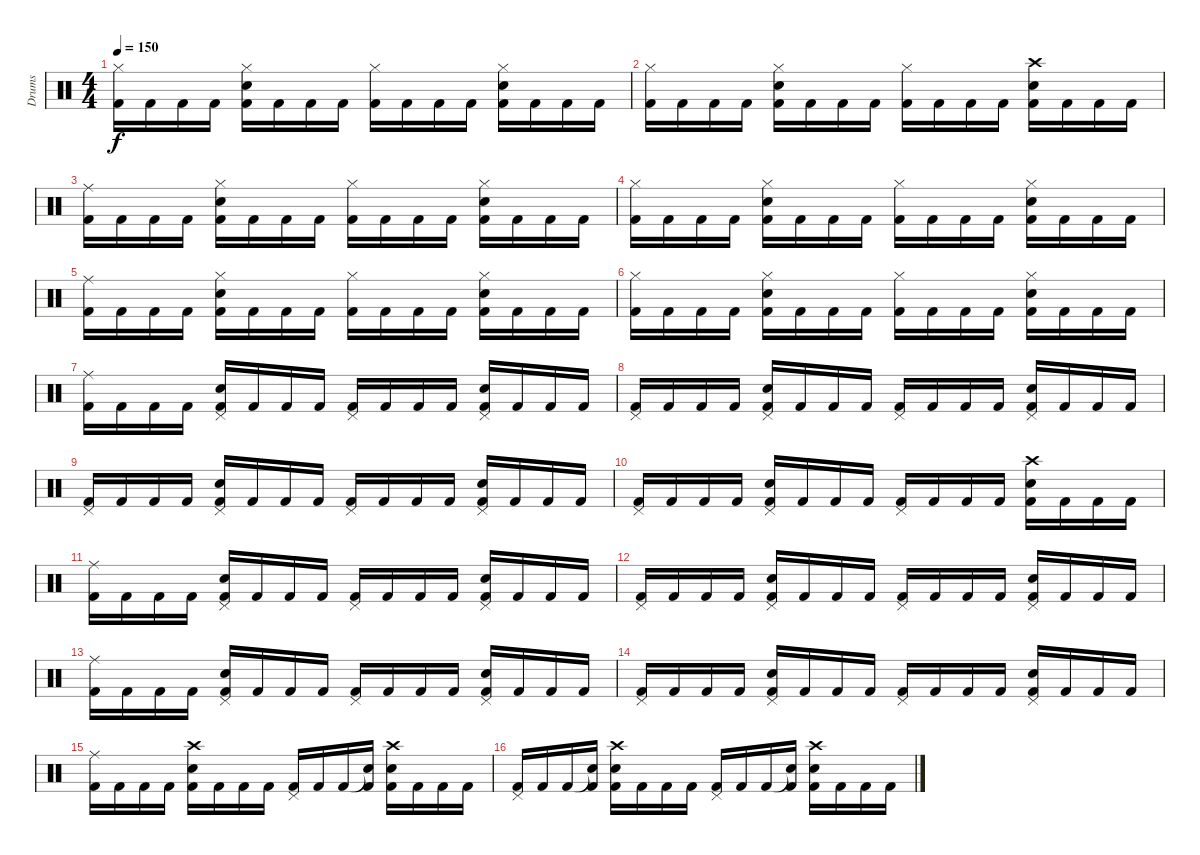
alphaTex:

\track ("Drums" "Drums") {instrument percussion}
\staff {score}
\articulation defaults
\ts (4 4)
\tempo 150
\clef neutral
\ks c
("Hi-Hat (closed)" "Kick (hit) 2").16{dy f} "Kick (hit) 2".16 "Kick (hit) 2".16 "Kick (hit) 2".16 ("Hi-Hat (closed)" "Electric Snare (hit)" "Kick (hit) 2").16 "Kick (hit) 2".16 "Kick (hit) 2".16 "Kick (hit) 2".16 ("Hi-Hat (closed)" "Kick (hit) 2").16 "Kick (hit) 2".16 "Kick (hit) 2".16 "Kick (hit) 2".16 ("Hi-Hat (closed)" "Electric Snare (hit)" "Kick (hit) 2").16 "Kick (hit) 2".16 "Kick (hit) 2".16 "Kick (hit) 2".16 |
("Hi-Hat (closed)" "Kick (hit) 2").16 "Kick (hit) 2".16 "Kick (hit) 2".16 "Kick (hit) 2".16 ("Hi-Hat (closed)" "Electric Snare (hit)" "Kick (hit) 2").16 "Kick (hit) 2".16 "Kick (hit) 2".16 "Kick (hit) 2".16 ("Hi-Hat (closed)" "Kick (hit) 2").16 "Kick (hit) 2".16 "Kick (hit) 2".16 "Kick (hit) 2".16 ("Crash high (hit)" "Electric Snare (hit)" "Kick (hit) 2").16 "Kick (hit) 2".16 "Kick (hit) 2".16 "Kick (hit) 2".16 |
("Ride (middle)" "Kick (hit) 2").16 "Kick (hit) 2".16 "Kick (hit) 2".16 "Kick (hit) 2".16 ("Hi-Hat (closed)" "Electric Snare (hit)" "Kick (hit) 2").16 "Kick (hit) 2".16 "Kick (hit) 2".16 "Kick (hit) 2".16 ("Hi-Hat (closed)" "Kick (hit) 2").16 "Kick (hit) 2".16 "Kick (hit) 2".16 "Kick (hit) 2".16 ("Hi-Hat (closed)" "Electric Snare (hit)" "Kick (hit) 2").16 "Kick (hit) 2".16 "Kick (hit) 2".16 "Kick (hit) 2".16 |
("Hi-Hat (closed)" "Kick (hit) 2").16 "Kick (hit) 2".16 "Kick (hit) 2".16 "Kick (hit) 2".16 ("Hi-Hat (closed)" "Electric Snare (hit)" "Kick (hit) 2").16 "Kick (hit) 2".16 "Kick (hit) 2".16 "Kick (hit) 2".16 ("Hi-Hat (closed)" "Kick (hit) 2").16 "Kick (hit) 2".16 "Kick (hit) 2".16 "Kick (hit) 2".16 ("Hi-Hat (closed)" "Electric Snare (hit)" "Kick (hit) 2").16 "Kick (hit) 2".16 "Kick (hit) 2".16 "Kick (hit) 2".16 |
("Ride (middle)" "Kick (hit) 2").16 "Kick (hit) 2".16 "Kick (hit) 2".16 "Kick (hit) 2".16 ("Hi-Hat (closed)" "Electric Snare (hit)" "Kick (hit) 2").16 "Kick (hit) 2".16 "Kick (hit) 2".16 "Kick (hit) 2".16 ("Hi-Hat (closed)" "Kick (hit) 2").16 "Kick (hit) 2".16 "Kick (hit) 2".16 "Kick (hit) 2".16 ("Hi-Hat (closed)" "Electric Snare (hit)" "Kick (hit) 2").16 "Kick (hit) 2".16 "Kick (hit) 2".16 "Kick (hit) 2".16 |
("Hi-Hat (closed)" "Kick (hit) 2").16 "Kick (hit) 2".16 "Kick (hit) 2".16 "Kick (hit) 2".16 ("Hi-Hat (closed)" "Electric Snare (hit)" "Kick (hit) 2").16 "Kick (hit) 2".16 "Kick (hit) 2".16 "Kick (hit) 2".16 ("Hi-Hat (closed)" "Kick (hit) 2").16 "Kick (hit) 2".16 "Kick (hit) 2".16 "Kick (hit) 2".16 ("Hi-Hat (closed)" "Electric Snare (hit)" "Kick (hit) 2").16 "Kick (hit) 2".16 "Kick (hit) 2".16 "Kick (hit) 2".16 |
("Ride (middle)" "Kick (hit) 2").16 "Kick (hit) 2".16 "Kick (hit) 2".16 "Kick (hit) 2".16 ("Pedal Hi-Hat (hit)" "Electric Snare (hit)" "Kick (hit) 2").16 "Kick (hit) 2".16 "Kick (hit) 2".16 "Kick (hit) 2".16 ("Pedal Hi-Hat (hit)" "Kick (hit) 2").16 "Kick (hit) 2".16 "Kick (hit) 2".16 "Kick (hit) 2".16 ("Pedal Hi-Hat (hit)" "Electric Snare (hit)" "Kick (hit) 2").16 "Kick (hit) 2".16 "Kick (hit) 2".16 "Kick (hit) 2".16 |
("Pedal Hi-Hat (hit)" "Kick (hit) 2").16 "Kick (hit) 2".16 "Kick (hit) 2".16 "Kick (hit) 2".16 ("Pedal Hi-Hat (hit)" "Electric Snare (hit)" "Kick (hit) 2").16 "Kick (hit) 2".16 "Kick (hit) 2".16 "Kick (hit) 2".16 ("Pedal Hi-Hat (hit)" "Kick (hit) 2").16 "Kick (hit) 2".16 "Kick (hit) 2".16 "Kick (hit) 2".16 ("Pedal Hi-Hat (hit)" "Electric Snare (hit)" "Kick (hit) 2").16 "Kick (hit) 2".16 "Kick (hit) 2".16 "Kick (hit) 2".16 |
("Pedal Hi-Hat (hit)" "Kick (hit) 2").16 "Kick (hit) 2".16 "Kick (hit) 2".16 "Kick (hit) 2".16 ("Pedal Hi-Hat (hit)" "Electric Snare (hit)" "Kick (hit) 2").16 "Kick (hit) 2".16 "Kick (hit) 2".16 "Kick (hit) 2".16 ("Pedal Hi-Hat (hit)" "Kick (hit) 2").16 "Kick (hit) 2".16 "Kick (hit) 2".16 "Kick (hit) 2".16 ("Pedal Hi-Hat (hit)" "Electric Snare (hit)" "Kick (hit) 2").16 "Kick (hit) 2".16 "Kick (hit) 2".16 "Kick (hit) 2".16 |
("Pedal Hi-Hat (hit)" "Kick (hit) 2").16 "Kick (hit) 2".16 "Kick (hit) 2".16 "Kick (hit) 2".16 ("Pedal Hi-Hat (hit)" "Electric Snare (hit)" "Kick (hit) 2").16 "Kick (hit) 2".16 "Kick (hit) 2".16 "Kick (hit) 2".16 ("Pedal Hi-Hat (hit)" "Kick (hit) 2").16 "Kick (hit) 2".16 "Kick (hit) 2".16 "Kick (hit) 2".16 ("Crash high (hit)" "Electric Snare (hit)" "Kick (hit) 2").16 "Kick (hit) 2".16 "Kick (hit) 2".16 "Kick (hit) 2".16 |
("Ride (middle)" "Kick (hit) 2").16 "Kick (hit) 2".16 "Kick (hit) 2".16 "Kick (hit) 2".16 ("Pedal Hi-Hat (hit)" "Electric Snare (hit)" "Kick (hit) 2").16 "Kick (hit) 2".16 "Kick (hit) 2".16 "Kick (hit) 2".16 ("Pedal Hi-Hat (hit)" "Kick (hit) 2").16 "Kick (hit) 2".16 "Kick (hit) 2".16 "Kick (hit) 2".16 ("Pedal Hi-Hat (hit)" "Electric Snare (hit)" "Kick (hit) 2").16 "Kick (hit) 2".16 "Kick (hit) 2".16 "Kick (hit) 2".16 |
("Pedal Hi-Hat (hit)" "Kick (hit) 2").16 "Kick (hit) 2".16 "Kick (hit) 2".16 "Kick (hit) 2".16 ("Pedal Hi-Hat (hit)" "Electric Snare (hit)" "Kick (hit) 2").16 "Kick (hit) 2".16 "Kick (hit) 2".16 "Kick (hit) 2".16 ("Pedal Hi-Hat (hit)" "Kick (hit) 2").16 "Kick (hit) 2".16 "Kick (hit) 2".16 "Kick (hit) 2".16 ("Pedal Hi-Hat (hit)" "Electric Snare (hit)" "Kick (hit) 2").16 "Kick (hit) 2".16 "Kick (hit) 2".16 "Kick (hit) 2".16 |
("Ride (middle)" "Kick (hit) 2").16 "Kick (hit) 2".16 "Kick (hit) 2".16 "Kick (hit) 2".16 ("Pedal Hi-Hat (hit)" "Electric Snare (hit)" "Kick (hit) 2").16 "Kick (hit) 2".16 "Kick (hit) 2".16 "Kick (hit) 2".16 ("Pedal Hi-Hat (hit)" "Kick (hit) 2").16 "Kick (hit) 2".16 "Kick (hit) 2".16 "Kick (hit) 2".16 ("Pedal Hi-Hat (hit)" "Electric Snare (hit)" "Kick (hit) 2").16 "Kick (hit) 2".16 "Kick (hit) 2".16 "Kick (hit) 2".16 |
("Pedal Hi-Hat (hit)" "Kick (hit) 2").16 "Kick (hit) 2".16 "Kick (hit) 2".16 "Kick (hit) 2".16 ("Pedal Hi-Hat (hit)" "Electric Snare (hit)" "Kick (hit) 2").16 "Kick (hit) 2".16 "Kick (hit) 2".16 "Kick (hit) 2".16 ("Pedal Hi-Hat (hit)" "Kick (hit) 2").16 "Kick (hit) 2".16 "Kick (hit) 2".16 "Kick (hit) 2".16 ("Pedal Hi-Hat (hit)" "Electric Snare (hit)" "Kick (hit) 2").16 "Kick (hit) 2".16 "Kick (hit) 2".16 "Kick (hit) 2".16 |
("Ride (middle)" "Kick (hit) 2").16 "Kick (hit) 2".16 "Kick (hit) 2".16 "Kick (hit) 2".16 ("Crash high (hit)" "Electric Snare (hit)" "Kick (hit) 2").16 "Kick (hit) 2".16 "Kick (hit) 2".16 "Kick (hit) 2".16 ("Pedal Hi-Hat (hit)" "Kick (hit) 2").16 "Kick (hit) 2".16 "Kick (hit) 2".16 ("Snare (hit)"{t} "Kick (hit) 2").16 ("Crash high (hit)" "Electric Snare (hit)" "Kick (hit) 2").16 "Kick (hit) 2".16 "Kick (hit) 2".16 "Kick (hit) 2".16 |
("Pedal Hi-Hat (hit)" "Kick (hit) 2").16 "Kick (hit) 2".16 "Kick (hit) 2".16 ("Snare (hit)"{t} "Kick (hit) 2").16 ("Crash high (hit)" "Electric Snare (hit)" "Kick (hit) 2").16 "Kick (hit) 2".16 "Kick (hit) 2".16 "Kick (hit) 2".16 ("Pedal Hi-Hat (hit)" "Kick (hit) 2").16 "Kick (hit) 2".16 "Kick (hit) 2".16 ("Snare (hit)"{t} "Kick (hit) 2").16 ("Crash high (hit)" "Electric Snare (hit)" "Kick (hit) 2").16 "Kick (hit) 2".16 "Kick (hit) 2".16 "Kick (hit) 2".16
